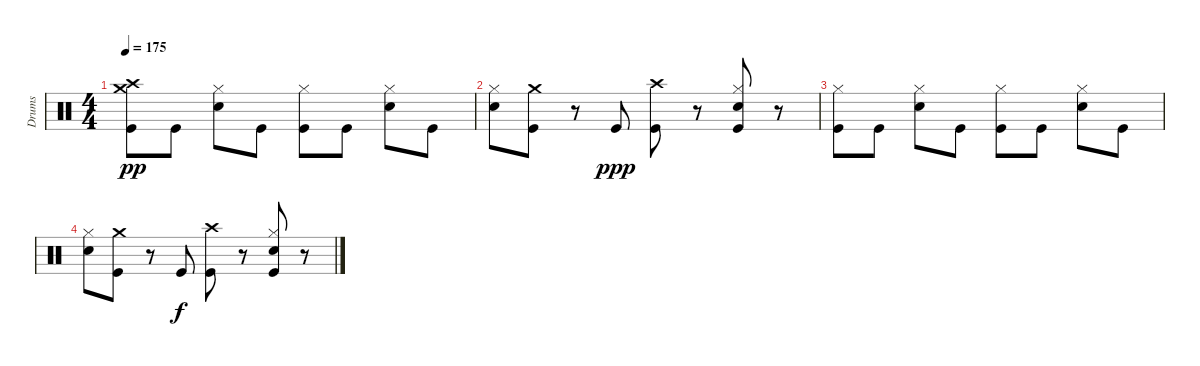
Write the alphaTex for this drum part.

\track ("Drums" "Drums") {instrument percussion}
\staff {score}
\articulation defaults
\ts (4 4)
\tempo 175
\clef neutral
\ks c
("Crash high (hit)" "Crash medium (hit)" "Kick (hit)").8{dy pp} "Kick (hit)".8 ("Hi-Hat (closed)" "Electric Snare (hit)").8 "Kick (hit)".8 ("Hi-Hat (closed)" "Kick (hit)").8 "Kick (hit)".8 ("Hi-Hat (closed)" "Electric Snare (hit)").8 "Kick (hit)".8 |
("Electric Snare (hit)" "Hi-Hat (closed)").8 ("Crash medium (hit)" "Kick (hit)").8 r.8 "Kick (hit)".8{dy ppp} ("Crash high (hit)" "Kick (hit)").8 r.8 ("Hi-Hat (closed)" "Snare (hit) 2" "Kick (hit)").8 r.8 |
("Hi-Hat (closed)" "Kick (hit)").8 "Kick (hit)".8 ("Hi-Hat (closed)" "Electric Snare (hit)").8 "Kick (hit)".8 ("Hi-Hat (closed)" "Kick (hit)").8 "Kick (hit)".8 ("Hi-Hat (closed)" "Electric Snare (hit)").8 "Kick (hit)".8 |
("Electric Snare (hit)" "Hi-Hat (closed)").8 ("Crash medium (hit)" "Kick (hit)").8 r.8 "Kick (hit)".8{dy f} ("Crash high (hit)" "Kick (hit)").8 r.8 ("Hi-Hat (closed)" "Snare (hit) 2" "Kick (hit)").8 r.8
